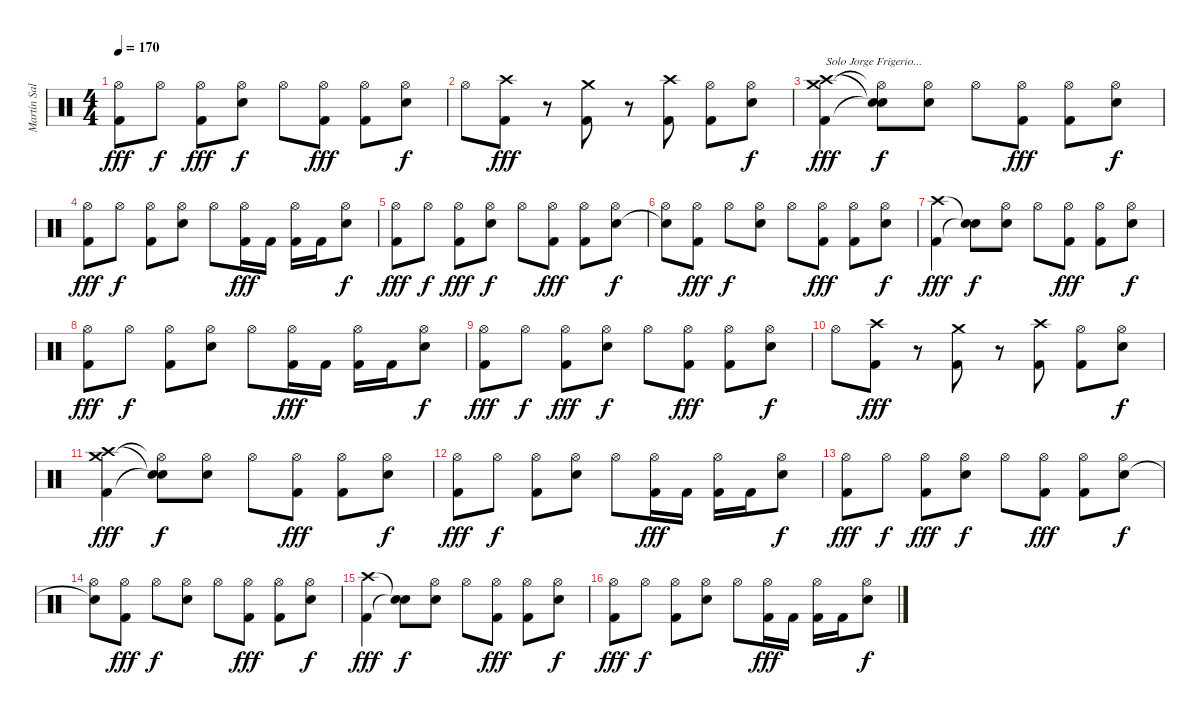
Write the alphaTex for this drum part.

\track ("Martín Salariato" "Martín Sal") {instrument percussion}
\staff {score}
\articulation defaults
\ts (4 4)
\tempo 170
\clef neutral
\ks c
("Hi-Hat (open)" "Kick (hit) 2").8{dy fff} "Hi-Hat (open)".8{dy f} ("Hi-Hat (open)" "Kick (hit) 2").8{dy fff} ("Hi-Hat (open)" "Snare (hit) 2").8{dy f} "Hi-Hat (open)".8 ("Hi-Hat (open)" "Kick (hit) 2").8{dy fff} ("Hi-Hat (open)" "Kick (hit) 2").8 ("Hi-Hat (open)" "Snare (hit) 2").8{dy f} |
"Hi-Hat (open)".8 ("Crash high (hit)" "Kick (hit) 2").8{dy fff} r.8 ("Crash medium (hit)" "Kick (hit) 2").8 r.8 ("Crash high (hit)" "Kick (hit) 2").8 ("Hi-Hat (open)" "Kick (hit) 2").8 ("Hi-Hat (open)" "Snare (hit) 2").8{dy f} |
("Crash medium (hit)" "Crash high (hit)" "Kick (hit) 2").4{txt "Solo Jorge Frigerio..." dy fff} ("Hi-Hat (open)"{t} "Snare (hit)"{t} "Snare (hit)"{t}).8{dy f} ("Hi-Hat (open)" "Snare (hit) 2").8 "Hi-Hat (open)".8 ("Hi-Hat (open)" "Kick (hit) 2").8{dy fff} ("Hi-Hat (open)" "Kick (hit) 2").8 ("Hi-Hat (open)" "Snare (hit) 2").8{dy f} |
("Hi-Hat (open)" "Kick (hit) 2").8{dy fff} "Hi-Hat (open)".8{dy f} ("Hi-Hat (open)" "Kick (hit) 2").8 ("Hi-Hat (open)" "Snare (hit) 2").8 "Hi-Hat (open)".8 ("Hi-Hat (open)" "Kick (hit) 2").16{dy fff} "Kick (hit) 2".16 ("Hi-Hat (open)" "Kick (hit) 2").16 "Kick (hit) 2".16 ("Hi-Hat (open)" "Snare (hit) 2").8{dy f} |
("Hi-Hat (open)" "Kick (hit) 2").8{dy fff} "Hi-Hat (open)".8{dy f} ("Hi-Hat (open)" "Kick (hit) 2").8{dy fff} ("Hi-Hat (open)" "Snare (hit) 2").8{dy f} "Hi-Hat (open)".8 ("Hi-Hat (open)" "Kick (hit) 2").8{dy fff} ("Hi-Hat (open)" "Kick (hit) 2").8 ("Hi-Hat (open)" "Snare (hit) 2").8{dy f} |
("Hi-Hat (open)" "Snare (hit)"{t}).8 ("Hi-Hat (open)" "Kick (hit) 2").8{dy fff} "Hi-Hat (open)".8{dy f} ("Hi-Hat (open)" "Snare (hit) 2").8 "Hi-Hat (open)".8 ("Hi-Hat (open)" "Kick (hit) 2").8{dy fff} ("Hi-Hat (open)" "Kick (hit) 2").8 ("Hi-Hat (open)" "Snare (hit) 2").8{dy f} |
("Crash high (hit)" "Kick (hit) 2").4{dy fff} ("Snare (hit)"{t} "Snare (hit)"{t}).8{dy f} ("Hi-Hat (open)" "Snare (hit) 2").8 "Hi-Hat (open)".8 ("Hi-Hat (open)" "Kick (hit) 2").8{dy fff} ("Hi-Hat (open)" "Kick (hit) 2").8 ("Hi-Hat (open)" "Snare (hit) 2").8{dy f} |
("Hi-Hat (open)" "Kick (hit) 2").8{dy fff} "Hi-Hat (open)".8{dy f} ("Hi-Hat (open)" "Kick (hit) 2").8 ("Hi-Hat (open)" "Snare (hit) 2").8 "Hi-Hat (open)".8 ("Hi-Hat (open)" "Kick (hit) 2").16{dy fff} "Kick (hit) 2".16 ("Hi-Hat (open)" "Kick (hit) 2").16 "Kick (hit) 2".16 ("Hi-Hat (open)" "Snare (hit) 2").8{dy f} |
("Hi-Hat (open)" "Kick (hit) 2").8{dy fff} "Hi-Hat (open)".8{dy f} ("Hi-Hat (open)" "Kick (hit) 2").8{dy fff} ("Hi-Hat (open)" "Snare (hit) 2").8{dy f} "Hi-Hat (open)".8 ("Hi-Hat (open)" "Kick (hit) 2").8{dy fff} ("Hi-Hat (open)" "Kick (hit) 2").8 ("Hi-Hat (open)" "Snare (hit) 2").8{dy f} |
"Hi-Hat (open)".8 ("Crash high (hit)" "Kick (hit) 2").8{dy fff} r.8 ("Crash medium (hit)" "Kick (hit) 2").8 r.8 ("Crash high (hit)" "Kick (hit) 2").8 ("Hi-Hat (open)" "Kick (hit) 2").8 ("Hi-Hat (open)" "Snare (hit) 2").8{dy f} |
("Crash medium (hit)" "Crash high (hit)" "Kick (hit) 2").4{dy fff} ("Hi-Hat (open)"{t} "Snare (hit)"{t} "Snare (hit)"{t}).8{dy f} ("Hi-Hat (open)" "Snare (hit) 2").8 "Hi-Hat (open)".8 ("Hi-Hat (open)" "Kick (hit) 2").8{dy fff} ("Hi-Hat (open)" "Kick (hit) 2").8 ("Hi-Hat (open)" "Snare (hit) 2").8{dy f} |
("Hi-Hat (open)" "Kick (hit) 2").8{dy fff} "Hi-Hat (open)".8{dy f} ("Hi-Hat (open)" "Kick (hit) 2").8 ("Hi-Hat (open)" "Snare (hit) 2").8 "Hi-Hat (open)".8 ("Hi-Hat (open)" "Kick (hit) 2").16{dy fff} "Kick (hit) 2".16 ("Hi-Hat (open)" "Kick (hit) 2").16 "Kick (hit) 2".16 ("Hi-Hat (open)" "Snare (hit) 2").8{dy f} |
("Hi-Hat (open)" "Kick (hit) 2").8{dy fff} "Hi-Hat (open)".8{dy f} ("Hi-Hat (open)" "Kick (hit) 2").8{dy fff} ("Hi-Hat (open)" "Snare (hit) 2").8{dy f} "Hi-Hat (open)".8 ("Hi-Hat (open)" "Kick (hit) 2").8{dy fff} ("Hi-Hat (open)" "Kick (hit) 2").8 ("Hi-Hat (open)" "Snare (hit) 2").8{dy f} |
("Hi-Hat (open)" "Snare (hit)"{t}).8 ("Hi-Hat (open)" "Kick (hit) 2").8{dy fff} "Hi-Hat (open)".8{dy f} ("Hi-Hat (open)" "Snare (hit) 2").8 "Hi-Hat (open)".8 ("Hi-Hat (open)" "Kick (hit) 2").8{dy fff} ("Hi-Hat (open)" "Kick (hit) 2").8 ("Hi-Hat (open)" "Snare (hit) 2").8{dy f} |
("Crash high (hit)" "Kick (hit) 2").4{dy fff} ("Snare (hit)"{t} "Snare (hit)"{t}).8{dy f} ("Hi-Hat (open)" "Snare (hit) 2").8 "Hi-Hat (open)".8 ("Hi-Hat (open)" "Kick (hit) 2").8{dy fff} ("Hi-Hat (open)" "Kick (hit) 2").8 ("Hi-Hat (open)" "Snare (hit) 2").8{dy f} |
("Hi-Hat (open)" "Kick (hit) 2").8{dy fff} "Hi-Hat (open)".8{dy f} ("Hi-Hat (open)" "Kick (hit) 2").8 ("Hi-Hat (open)" "Snare (hit) 2").8 "Hi-Hat (open)".8 ("Hi-Hat (open)" "Kick (hit) 2").16{dy fff} "Kick (hit) 2".16 ("Hi-Hat (open)" "Kick (hit) 2").16 "Kick (hit) 2".16 ("Hi-Hat (open)" "Snare (hit) 2").8{dy f}
